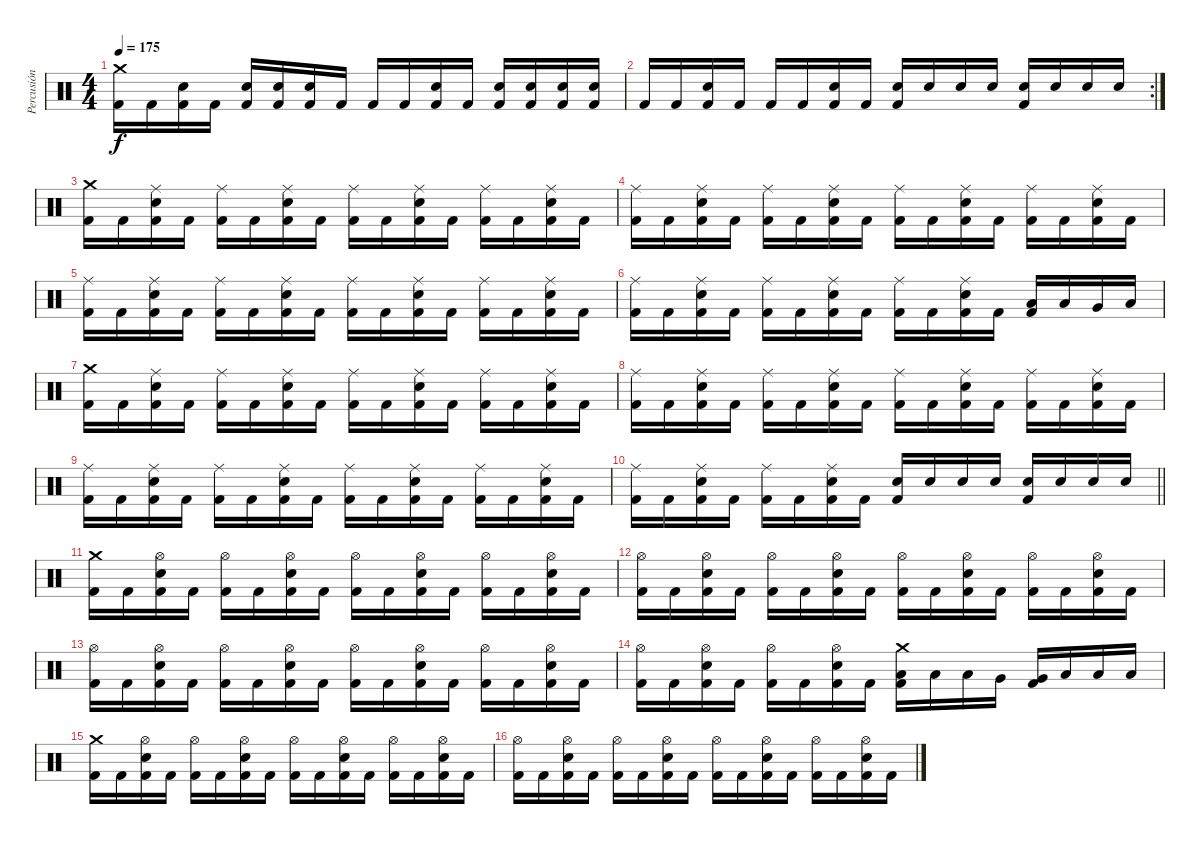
\track ("Percusión" "Percusión") {instrument percussion}
\staff {score}
\articulation defaults
\ts (4 4)
\tempo 175
\clef neutral
\ks c
("Crash medium (hit)" "Kick (hit) 2").16{dy f} "Kick (hit) 2".16 ("Electric Snare (hit)" "Kick (hit) 2").16 "Kick (hit) 2".16 ("Electric Snare (hit)" "Kick (hit) 2").16 ("Electric Snare (hit)" "Kick (hit) 2").16 ("Electric Snare (hit)" "Kick (hit) 2").16 "Kick (hit) 2".16 "Kick (hit) 2".16 "Kick (hit) 2".16 ("Electric Snare (hit)" "Kick (hit) 2").16 "Kick (hit) 2".16 ("Electric Snare (hit)" "Kick (hit) 2").16 ("Electric Snare (hit)" "Kick (hit) 2").16 ("Electric Snare (hit)" "Kick (hit) 2").16 ("Electric Snare (hit)" "Kick (hit) 2").16 |
\rc 2 "Kick (hit) 2".16 "Kick (hit) 2".16
("Electric Snare (hit)" "Kick (hit) 2").16 "Kick (hit) 2".16 "Kick (hit) 2".16 "Kick (hit) 2".16 ("Electric Snare (hit)" "Kick (hit) 2").16 "Kick (hit) 2".16 ("Electric Snare (hit)" "Kick (hit) 2").16 "Electric Snare (hit)".16 "Electric Snare (hit)".16 "Electric Snare (hit)".16 ("Electric Snare (hit)" "Kick (hit) 2").16 "Electric Snare (hit)".16 "Electric Snare (hit)".16 "Electric Snare (hit)".16 |
("Crash medium (hit)" "Kick (hit) 2").16 "Kick (hit) 2".16 ("Ride (middle)" "Electric Snare (hit)" "Kick (hit) 2").16 "Kick (hit) 2".16 ("Ride (middle)" "Kick (hit) 2").16 "Kick (hit) 2".16 ("Ride (middle)" "Electric Snare (hit)" "Kick (hit) 2").16 "Kick (hit) 2".16 ("Ride (middle)" "Kick (hit) 2").16 "Kick (hit) 2".16 ("Ride (middle)" "Electric Snare (hit)" "Kick (hit) 2").16 "Kick (hit) 2".16 ("Ride (middle)" "Kick (hit) 2").16 "Kick (hit) 2".16 ("Ride (middle)" "Electric Snare (hit)" "Kick (hit) 2").16 "Kick (hit) 2".16 |
("Ride (middle)" "Kick (hit) 2").16 "Kick (hit) 2".16 ("Ride (middle)" "Electric Snare (hit)" "Kick (hit) 2").16 "Kick (hit) 2".16 ("Ride (middle)" "Kick (hit) 2").16 "Kick (hit) 2".16 ("Ride (middle)" "Electric Snare (hit)" "Kick (hit) 2").16 "Kick (hit) 2".16 ("Ride (middle)" "Kick (hit) 2").16 "Kick (hit) 2".16 ("Ride (middle)" "Electric Snare (hit)" "Kick (hit) 2").16 "Kick (hit) 2".16 ("Ride (middle)" "Kick (hit) 2").16 "Kick (hit) 2".16 ("Ride (middle)" "Electric Snare (hit)" "Kick (hit) 2").16 "Kick (hit) 2".16 |
("Ride (middle)" "Kick (hit) 2").16 "Kick (hit) 2".16 ("Ride (middle)" "Electric Snare (hit)" "Kick (hit) 2").16 "Kick (hit) 2".16 ("Ride (middle)" "Kick (hit) 2").16 "Kick (hit) 2".16 ("Ride (middle)" "Electric Snare (hit)" "Kick (hit) 2").16 "Kick (hit) 2".16 ("Ride (middle)" "Kick (hit) 2").16 "Kick (hit) 2".16 ("Ride (middle)" "Electric Snare (hit)" "Kick (hit) 2").16 "Kick (hit) 2".16 ("Ride (middle)" "Kick (hit) 2").16 "Kick (hit) 2".16 ("Ride (middle)" "Electric Snare (hit)" "Kick (hit) 2").16 "Kick (hit) 2".16 |
("Ride (middle)" "Kick (hit) 2").16 "Kick (hit) 2".16 ("Ride (middle)" "Electric Snare (hit)" "Kick (hit) 2").16 "Kick (hit) 2".16 ("Ride (middle)" "Kick (hit) 2").16 "Kick (hit) 2".16 ("Ride (middle)" "Electric Snare (hit)" "Kick (hit) 2").16 "Kick (hit) 2".16 ("Ride (middle)" "Kick (hit) 2").16 "Kick (hit) 2".16 ("Ride (middle)" "Electric Snare (hit)" "Kick (hit) 2").16 "Kick (hit) 2".16 ("Low Tom (hit)" "Kick (hit) 2").16 "Low Tom (hit)".16 "Very Low Tom (hit)".16 "Low Floor Tom (hit)".16 |
("Crash medium (hit)" "Kick (hit) 2").16 "Kick (hit) 2".16 ("Ride (middle)" "Electric Snare (hit)" "Kick (hit) 2").16 "Kick (hit) 2".16 ("Ride (middle)" "Kick (hit) 2").16 "Kick (hit) 2".16 ("Ride (middle)" "Electric Snare (hit)" "Kick (hit) 2").16 "Kick (hit) 2".16 ("Ride (middle)" "Kick (hit) 2").16 "Kick (hit) 2".16 ("Ride (middle)" "Electric Snare (hit)" "Kick (hit) 2").16 "Kick (hit) 2".16 ("Ride (middle)" "Kick (hit) 2").16 "Kick (hit) 2".16 ("Ride (middle)" "Electric Snare (hit)" "Kick (hit) 2").16 "Kick (hit) 2".16 |
("Ride (middle)" "Kick (hit) 2").16 "Kick (hit) 2".16 ("Ride (middle)" "Electric Snare (hit)" "Kick (hit) 2").16 "Kick (hit) 2".16 ("Ride (middle)" "Kick (hit) 2").16 "Kick (hit) 2".16 ("Ride (middle)" "Electric Snare (hit)" "Kick (hit) 2").16 "Kick (hit) 2".16 ("Ride (middle)" "Kick (hit) 2").16 "Kick (hit) 2".16 ("Ride (middle)" "Electric Snare (hit)" "Kick (hit) 2").16 "Kick (hit) 2".16 ("Ride (middle)" "Kick (hit) 2").16 "Kick (hit) 2".16 ("Ride (middle)" "Electric Snare (hit)" "Kick (hit) 2").16 "Kick (hit) 2".16 |
("Ride (middle)" "Kick (hit) 2").16 "Kick (hit) 2".16 ("Ride (middle)" "Electric Snare (hit)" "Kick (hit) 2").16 "Kick (hit) 2".16 ("Ride (middle)" "Kick (hit) 2").16 "Kick (hit) 2".16 ("Ride (middle)" "Electric Snare (hit)" "Kick (hit) 2").16 "Kick (hit) 2".16 ("Ride (middle)" "Kick (hit) 2").16 "Kick (hit) 2".16 ("Ride (middle)" "Electric Snare (hit)" "Kick (hit) 2").16 "Kick (hit) 2".16 ("Ride (middle)" "Kick (hit) 2").16 "Kick (hit) 2".16 ("Ride (middle)" "Electric Snare (hit)" "Kick (hit) 2").16 "Kick (hit) 2".16 |
\barLineRight lightlight
("Ride (middle)" "Kick (hit) 2").16 "Kick (hit) 2".16 ("Ride (middle)" "Electric Snare (hit)" "Kick (hit) 2").16 "Kick (hit) 2".16 ("Ride (middle)" "Kick (hit) 2").16 "Kick (hit) 2".16 ("Ride (middle)" "Electric Snare (hit)" "Kick (hit) 2").16 "Kick (hit) 2".16 ("Electric Snare (hit)" "Kick (hit) 2").16 "Electric Snare (hit)".16 "Electric Snare (hit)".16 "Electric Snare (hit)".16 ("Electric Snare (hit)" "Kick (hit) 2").16 "Electric Snare (hit)".16 "Electric Snare (hit)".16 "Electric Snare (hit)".16 |
("Crash medium (hit)" "Kick (hit) 2").16 "Kick (hit) 2".16 ("Hi-Hat (open)" "Electric Snare (hit)" "Kick (hit) 2").16 "Kick (hit) 2".16 ("Hi-Hat (open)" "Kick (hit) 2").16 "Kick (hit) 2".16 ("Hi-Hat (open)" "Electric Snare (hit)" "Kick (hit) 2").16 "Kick (hit) 2".16 ("Hi-Hat (open)" "Kick (hit) 2").16 "Kick (hit) 2".16 ("Hi-Hat (open)" "Electric Snare (hit)" "Kick (hit) 2").16 "Kick (hit) 2".16 ("Hi-Hat (open)" "Kick (hit) 2").16 "Kick (hit) 2".16 ("Hi-Hat (open)" "Electric Snare (hit)" "Kick (hit) 2").16 "Kick (hit) 2".16 |
("Hi-Hat (open)" "Kick (hit) 2").16 "Kick (hit) 2".16 ("Hi-Hat (open)" "Electric Snare (hit)" "Kick (hit) 2").16 "Kick (hit) 2".16 ("Hi-Hat (open)" "Kick (hit) 2").16 "Kick (hit) 2".16 ("Hi-Hat (open)" "Electric Snare (hit)" "Kick (hit) 2").16 "Kick (hit) 2".16 ("Hi-Hat (open)" "Kick (hit) 2").16 "Kick (hit) 2".16 ("Hi-Hat (open)" "Electric Snare (hit)" "Kick (hit) 2").16 "Kick (hit) 2".16 ("Hi-Hat (open)" "Kick (hit) 2").16 "Kick (hit) 2".16 ("Hi-Hat (open)" "Electric Snare (hit)" "Kick (hit) 2").16 "Kick (hit) 2".16 |
("Hi-Hat (open)" "Kick (hit) 2").16 "Kick (hit) 2".16 ("Hi-Hat (open)" "Electric Snare (hit)" "Kick (hit) 2").16 "Kick (hit) 2".16 ("Hi-Hat (open)" "Kick (hit) 2").16 "Kick (hit) 2".16 ("Hi-Hat (open)" "Electric Snare (hit)" "Kick (hit) 2").16 "Kick (hit) 2".16 ("Hi-Hat (open)" "Kick (hit) 2").16 "Kick (hit) 2".16 ("Hi-Hat (open)" "Electric Snare (hit)" "Kick (hit) 2").16 "Kick (hit) 2".16 ("Hi-Hat (open)" "Kick (hit) 2").16 "Kick (hit) 2".16 ("Hi-Hat (open)" "Electric Snare (hit)" "Kick (hit) 2").16 "Kick (hit) 2".16 |
("Hi-Hat (open)" "Kick (hit) 2").16 "Kick (hit) 2".16 ("Hi-Hat (open)" "Electric Snare (hit)" "Kick (hit) 2").16 "Kick (hit) 2".16 ("Hi-Hat (open)" "Kick (hit) 2").16 "Kick (hit) 2".16 ("Hi-Hat (open)" "Electric Snare (hit)" "Kick (hit) 2").16 "Kick (hit) 2".16 ("Crash medium (hit)" "Low Tom (hit)" "Kick (hit) 2").16 "Low Tom (hit)".16 "Low Tom (hit)".16 "Very Low Tom (hit)".16 ("Very Low Tom (hit)" "Kick (hit) 2").16 "Low Floor Tom (hit)".16 "Low Floor Tom (hit)".16 "Low Floor Tom (hit)".16 |
("Crash medium (hit)" "Kick (hit) 2").16 "Kick (hit) 2".16 ("Hi-Hat (open)" "Electric Snare (hit)" "Kick (hit) 2").16 "Kick (hit) 2".16 ("Hi-Hat (open)" "Kick (hit) 2").16 "Kick (hit) 2".16 ("Hi-Hat (open)" "Electric Snare (hit)" "Kick (hit) 2").16 "Kick (hit) 2".16 ("Hi-Hat (open)" "Kick (hit) 2").16 "Kick (hit) 2".16 ("Hi-Hat (open)" "Electric Snare (hit)" "Kick (hit) 2").16 "Kick (hit) 2".16 ("Hi-Hat (open)" "Kick (hit) 2").16 "Kick (hit) 2".16 ("Hi-Hat (open)" "Electric Snare (hit)" "Kick (hit) 2").16 "Kick (hit) 2".16 |
("Hi-Hat (open)" "Kick (hit) 2").16 "Kick (hit) 2".16 ("Hi-Hat (open)" "Electric Snare (hit)" "Kick (hit) 2").16 "Kick (hit) 2".16 ("Hi-Hat (open)" "Kick (hit) 2").16 "Kick (hit) 2".16 ("Hi-Hat (open)" "Electric Snare (hit)" "Kick (hit) 2").16 "Kick (hit) 2".16 ("Hi-Hat (open)" "Kick (hit) 2").16 "Kick (hit) 2".16 ("Hi-Hat (open)" "Electric Snare (hit)" "Kick (hit) 2").16 "Kick (hit) 2".16 ("Hi-Hat (open)" "Kick (hit) 2").16 "Kick (hit) 2".16 ("Hi-Hat (open)" "Electric Snare (hit)" "Kick (hit) 2").16 "Kick (hit) 2".16
